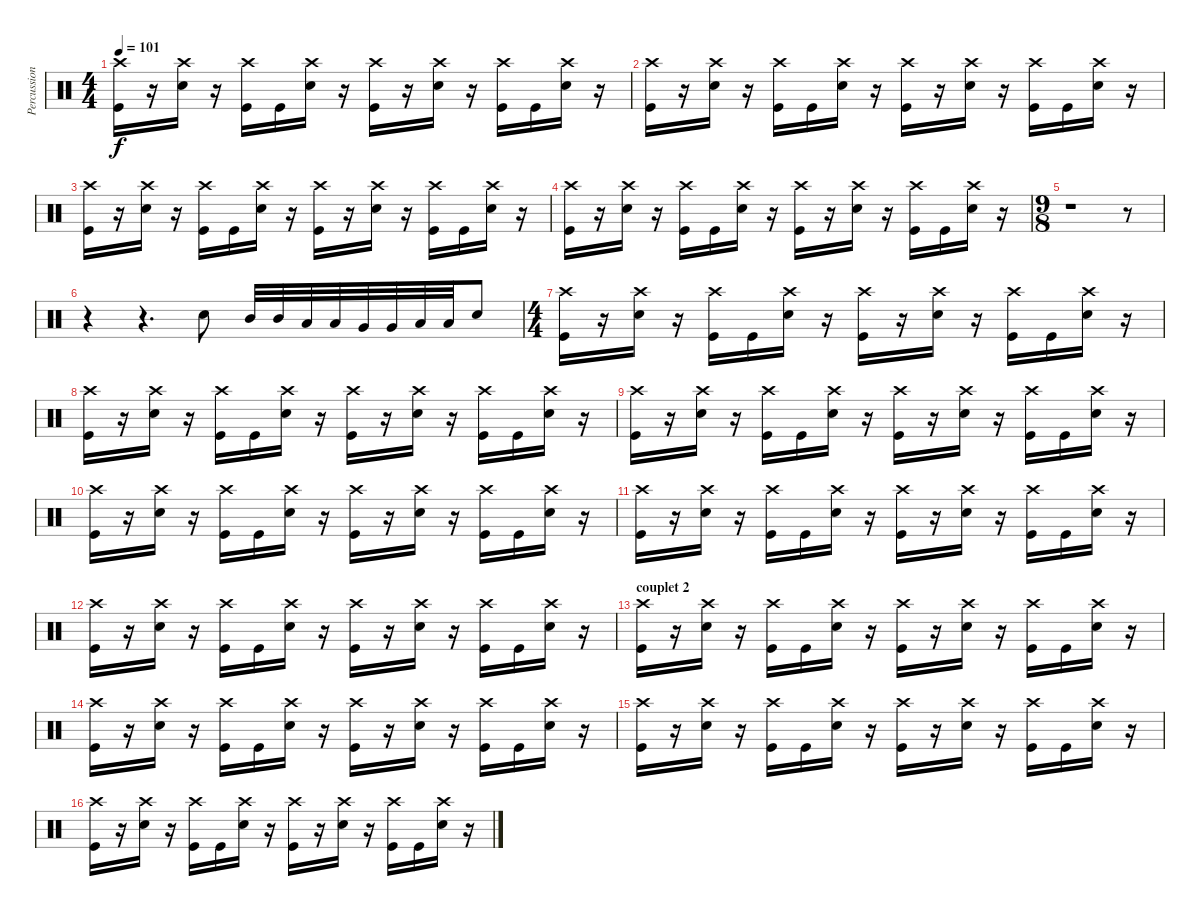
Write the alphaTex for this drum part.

\track ("Percussions" "Percussion") {instrument percussion}
\staff {score}
\articulation defaults
\ts (4 4)
\tempo 101
\clef neutral
\ks c
("Crash high (hit)" "Kick (hit)").16{dy f} r.16 ("Crash high (hit)" "Electric Snare (hit)").16 r.16 ("Crash high (hit)" "Kick (hit)").16 "Kick (hit)".16 ("Crash high (hit)" "Electric Snare (hit)").16 r.16 ("Crash high (hit)" "Kick (hit)").16 r.16 ("Crash high (hit)" "Electric Snare (hit)").16 r.16 ("Crash high (hit)" "Kick (hit)").16 "Kick (hit)".16 ("Crash high (hit)" "Electric Snare (hit)").16 r.16 |
("Crash high (hit)" "Kick (hit)").16 r.16 ("Crash high (hit)" "Electric Snare (hit)").16 r.16 ("Crash high (hit)" "Kick (hit)").16 "Kick (hit)".16 ("Crash high (hit)" "Electric Snare (hit)").16 r.16 ("Crash high (hit)" "Kick (hit)").16 r.16 ("Crash high (hit)" "Electric Snare (hit)").16 r.16 ("Crash high (hit)" "Kick (hit)").16 "Kick (hit)".16 ("Crash high (hit)" "Electric Snare (hit)").16 r.16 |
("Crash high (hit)" "Kick (hit)").16 r.16 ("Crash high (hit)" "Electric Snare (hit)").16 r.16 ("Crash high (hit)" "Kick (hit)").16 "Kick (hit)".16 ("Crash high (hit)" "Electric Snare (hit)").16 r.16 ("Crash high (hit)" "Kick (hit)").16 r.16 ("Crash high (hit)" "Electric Snare (hit)").16 r.16 ("Crash high (hit)" "Kick (hit)").16 "Kick (hit)".16 ("Crash high (hit)" "Electric Snare (hit)").16 r.16 |
("Crash high (hit)" "Kick (hit)").16 r.16 ("Crash high (hit)" "Electric Snare (hit)").16 r.16 ("Crash high (hit)" "Kick (hit)").16 "Kick (hit)".16 ("Crash high (hit)" "Electric Snare (hit)").16 r.16 ("Crash high (hit)" "Kick (hit)").16 r.16 ("Crash high (hit)" "Electric Snare (hit)").16 r.16 ("Crash high (hit)" "Kick (hit)").16 "Kick (hit)".16 ("Crash high (hit)" "Electric Snare (hit)").16 r.16 |
\ts (9 8)
r.1 r.8 |
r.4 r.4{d} "Electric Snare (hit)".8 "Mid Tom (hit)".32 "Mid Tom (hit)".32 "Low Tom (hit)".32 "Low Tom (hit)".32 "Very Low Tom (hit)".32 "Very Low Tom (hit)".32 "Low Floor Tom (hit)".32 "Low Floor Tom (hit)".32 "Electric Snare (hit)".8 |
\ts (4 4)
("Crash high (hit)" "Kick (hit)").16 r.16 ("Crash high (hit)" "Electric Snare (hit)").16 r.16 ("Crash high (hit)" "Kick (hit)").16 "Kick (hit)".16 ("Crash high (hit)" "Electric Snare (hit)").16 r.16 ("Crash high (hit)" "Kick (hit)").16 r.16 ("Crash high (hit)" "Electric Snare (hit)").16 r.16 ("Crash high (hit)" "Kick (hit)").16 "Kick (hit)".16 ("Crash high (hit)" "Electric Snare (hit)").16 r.16 |
("Crash high (hit)" "Kick (hit)").16 r.16 ("Crash high (hit)" "Electric Snare (hit)").16 r.16 ("Crash high (hit)" "Kick (hit)").16 "Kick (hit)".16 ("Crash high (hit)" "Electric Snare (hit)").16 r.16 ("Crash high (hit)" "Kick (hit)").16 r.16 ("Crash high (hit)" "Electric Snare (hit)").16 r.16 ("Crash high (hit)" "Kick (hit)").16 "Kick (hit)".16 ("Crash high (hit)" "Electric Snare (hit)").16 r.16 |
("Crash high (hit)" "Kick (hit)").16 r.16 ("Crash high (hit)" "Electric Snare (hit)").16 r.16 ("Crash high (hit)" "Kick (hit)").16 "Kick (hit)".16 ("Crash high (hit)" "Electric Snare (hit)").16 r.16 ("Crash high (hit)" "Kick (hit)").16 r.16 ("Crash high (hit)" "Electric Snare (hit)").16 r.16 ("Crash high (hit)" "Kick (hit)").16 "Kick (hit)".16 ("Crash high (hit)" "Electric Snare (hit)").16 r.16 |
("Crash high (hit)" "Kick (hit)").16 r.16 ("Crash high (hit)" "Electric Snare (hit)").16 r.16 ("Crash high (hit)" "Kick (hit)").16 "Kick (hit)".16 ("Crash high (hit)" "Electric Snare (hit)").16 r.16 ("Crash high (hit)" "Kick (hit)").16 r.16 ("Crash high (hit)" "Electric Snare (hit)").16 r.16 ("Crash high (hit)" "Kick (hit)").16 "Kick (hit)".16 ("Crash high (hit)" "Electric Snare (hit)").16 r.16 |
("Crash high (hit)" "Kick (hit)").16 r.16 ("Crash high (hit)" "Electric Snare (hit)").16 r.16 ("Crash high (hit)" "Kick (hit)").16 "Kick (hit)".16 ("Crash high (hit)" "Electric Snare (hit)").16 r.16 ("Crash high (hit)" "Kick (hit)").16 r.16 ("Crash high (hit)" "Electric Snare (hit)").16 r.16 ("Crash high (hit)" "Kick (hit)").16 "Kick (hit)".16 ("Crash high (hit)" "Electric Snare (hit)").16 r.16 |
("Crash high (hit)" "Kick (hit)").16 r.16 ("Crash high (hit)" "Electric Snare (hit)").16 r.16 ("Crash high (hit)" "Kick (hit)").16 "Kick (hit)".16 ("Crash high (hit)" "Electric Snare (hit)").16 r.16 ("Crash high (hit)" "Kick (hit)").16 r.16 ("Crash high (hit)" "Electric Snare (hit)").16 r.16 ("Crash high (hit)" "Kick (hit)").16 "Kick (hit)".16 ("Crash high (hit)" "Electric Snare (hit)").16 r.16 |
\section ("" "couplet 2")
("Crash high (hit)" "Kick (hit)").16 r.16 ("Crash high (hit)" "Electric Snare (hit)").16 r.16 ("Crash high (hit)" "Kick (hit)").16 "Kick (hit)".16 ("Crash high (hit)" "Electric Snare (hit)").16 r.16 ("Crash high (hit)" "Kick (hit)").16 r.16 ("Crash high (hit)" "Electric Snare (hit)").16 r.16 ("Crash high (hit)" "Kick (hit)").16 "Kick (hit)".16 ("Crash high (hit)" "Electric Snare (hit)").16 r.16 |
("Crash high (hit)" "Kick (hit)").16 r.16 ("Crash high (hit)" "Electric Snare (hit)").16 r.16 ("Crash high (hit)" "Kick (hit)").16 "Kick (hit)".16 ("Crash high (hit)" "Electric Snare (hit)").16 r.16 ("Crash high (hit)" "Kick (hit)").16 r.16 ("Crash high (hit)" "Electric Snare (hit)").16 r.16 ("Crash high (hit)" "Kick (hit)").16 "Kick (hit)".16 ("Crash high (hit)" "Electric Snare (hit)").16 r.16 |
("Crash high (hit)" "Kick (hit)").16 r.16 ("Crash high (hit)" "Electric Snare (hit)").16 r.16 ("Crash high (hit)" "Kick (hit)").16 "Kick (hit)".16 ("Crash high (hit)" "Electric Snare (hit)").16 r.16 ("Crash high (hit)" "Kick (hit)").16 r.16 ("Crash high (hit)" "Electric Snare (hit)").16 r.16 ("Crash high (hit)" "Kick (hit)").16 "Kick (hit)".16 ("Crash high (hit)" "Electric Snare (hit)").16 r.16 |
("Crash high (hit)" "Kick (hit)").16 r.16 ("Crash high (hit)" "Electric Snare (hit)").16 r.16 ("Crash high (hit)" "Kick (hit)").16 "Kick (hit)".16 ("Crash high (hit)" "Electric Snare (hit)").16 r.16 ("Crash high (hit)" "Kick (hit)").16 r.16 ("Crash high (hit)" "Electric Snare (hit)").16 r.16 ("Crash high (hit)" "Kick (hit)").16 "Kick (hit)".16 ("Crash high (hit)" "Electric Snare (hit)").16 r.16
